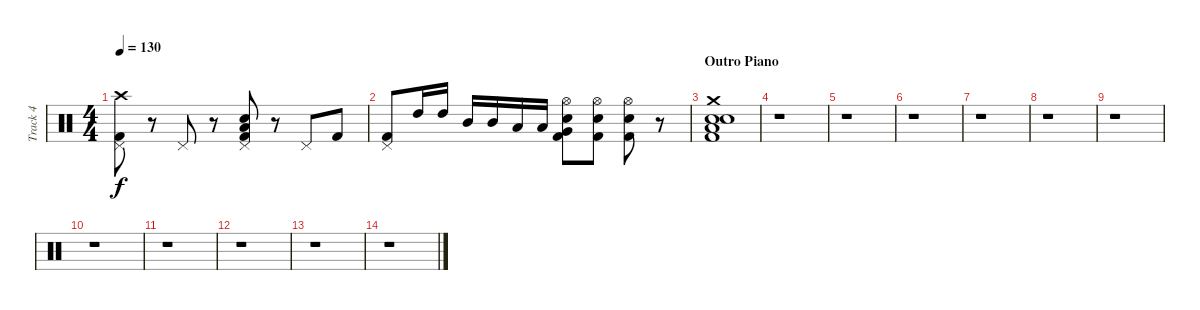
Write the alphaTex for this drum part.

\track ("Track 4" "Track 4") {instrument percussion}
\staff {score}
\articulation defaults
\ts (4 4)
\tempo 130
\clef neutral
\ks c
("Kick (hit) 2" "Pedal Hi-Hat (hit)" "Crash high (hit)").8{dy f} r.8 "Pedal Hi-Hat (hit)".8 r.8 ("Low Tom (hit)" "Snare (hit) 2" "Kick (hit) 2" "Pedal Hi-Hat (hit)").8 r.8 "Pedal Hi-Hat (hit)".8 "Kick (hit) 2".8 |
("Kick (hit) 2" "Pedal Hi-Hat (hit)").8 "High Tom (hit)".16 "High Tom (hit)".16 "Mid Tom (hit)".16 "Mid Tom (hit)".16 "Low Tom (hit)".16 "Low Tom (hit)".16 ("Very Low Tom (hit)" "Kick (hit) 2" "Snare (hit) 2" "Hi-Hat (open)").8 ("Kick (hit) 2" "Snare (hit) 2" "Hi-Hat (open)").8 ("Kick (hit) 2" "Snare (hit) 2" "Hi-Hat (open)").8 r.8 |
\section ("" "Outro Piano")
("Low Tom (hit)" "Snare (hit) 2" "Crash medium (hit)" "Electric Snare (hit)" "Kick (hit) 2").1 |
r.1 |
r.1 |
r.1 |
r.1 |
r.1 |
r.1 |
r.1 |
r.1 |
r.1 |
r.1 |
r.1
